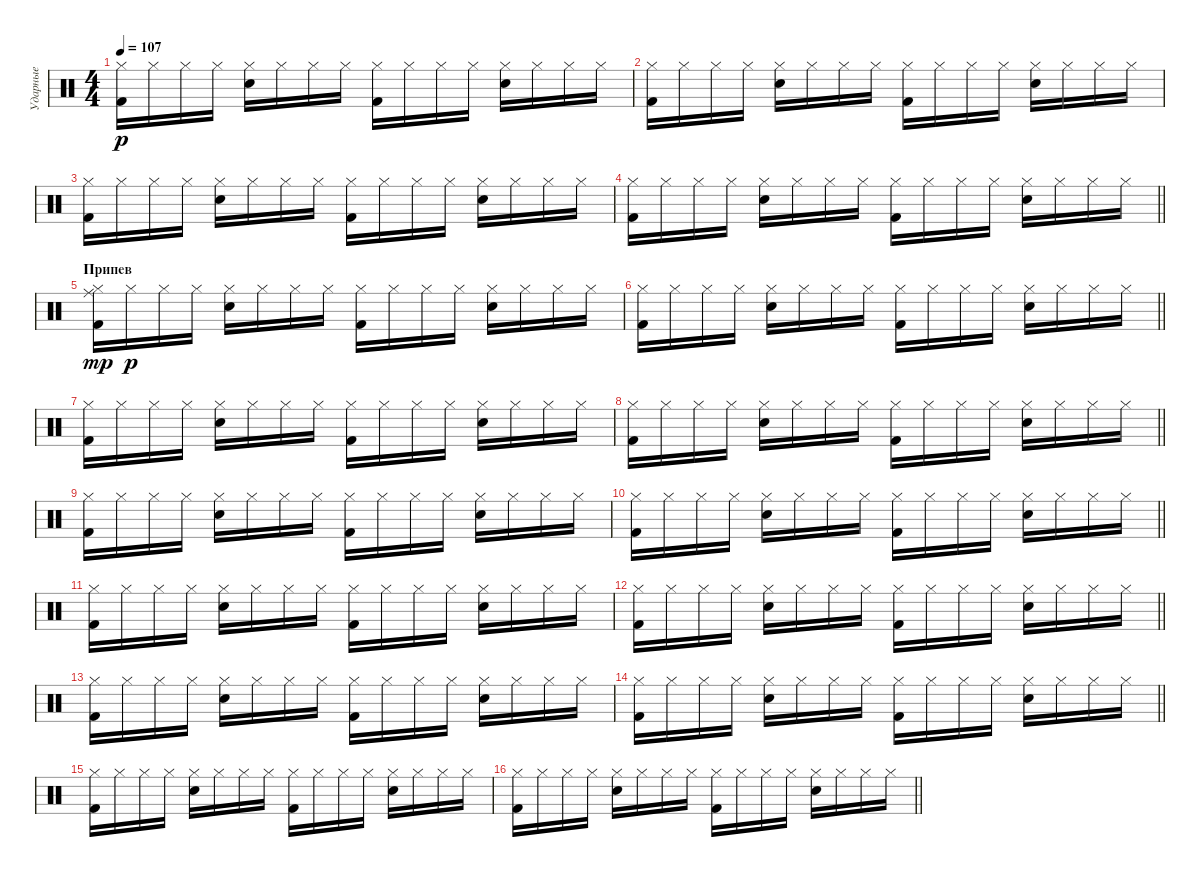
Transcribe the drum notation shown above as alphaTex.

\track ("Ударные" "Ударные") {solo instrument percussion}
\staff {score}
\articulation defaults
\ts (4 4)
\tempo 107
\clef neutral
\ks c
("Kick (hit) 2" "Hi-Hat (closed)").16{dy p} "Hi-Hat (closed)".16 "Hi-Hat (closed)".16 "Hi-Hat (closed)".16 ("Snare (hit) 2" "Hi-Hat (closed)").16 "Hi-Hat (closed)".16 "Hi-Hat (closed)".16 "Hi-Hat (closed)".16 ("Kick (hit) 2" "Hi-Hat (closed)").16 "Hi-Hat (closed)".16 "Hi-Hat (closed)".16 "Hi-Hat (closed)".16 ("Snare (hit) 2" "Hi-Hat (closed)").16 "Hi-Hat (closed)".16 "Hi-Hat (closed)".16 "Hi-Hat (closed)".16 |
("Kick (hit) 2" "Hi-Hat (closed)").16 "Hi-Hat (closed)".16 "Hi-Hat (closed)".16 "Hi-Hat (closed)".16 ("Snare (hit) 2" "Hi-Hat (closed)").16 "Hi-Hat (closed)".16 "Hi-Hat (closed)".16 "Hi-Hat (closed)".16 ("Kick (hit) 2" "Hi-Hat (closed)").16 "Hi-Hat (closed)".16 "Hi-Hat (closed)".16 "Hi-Hat (closed)".16 ("Snare (hit) 2" "Hi-Hat (closed)").16 "Hi-Hat (closed)".16 "Hi-Hat (closed)".16 "Hi-Hat (closed)".16 |
("Kick (hit) 2" "Hi-Hat (closed)").16 "Hi-Hat (closed)".16 "Hi-Hat (closed)".16 "Hi-Hat (closed)".16 ("Snare (hit) 2" "Hi-Hat (closed)").16 "Hi-Hat (closed)".16 "Hi-Hat (closed)".16 "Hi-Hat (closed)".16 ("Kick (hit) 2" "Hi-Hat (closed)").16 "Hi-Hat (closed)".16 "Hi-Hat (closed)".16 "Hi-Hat (closed)".16 ("Snare (hit) 2" "Hi-Hat (closed)").16 "Hi-Hat (closed)".16 "Hi-Hat (closed)".16 "Hi-Hat (closed)".16 |
\barLineRight lightlight
("Kick (hit) 2" "Hi-Hat (closed)").16 "Hi-Hat (closed)".16 "Hi-Hat (closed)".16 "Hi-Hat (closed)".16 ("Snare (hit) 2" "Hi-Hat (closed)").16 "Hi-Hat (closed)".16 "Hi-Hat (closed)".16 "Hi-Hat (closed)".16 ("Kick (hit) 2" "Hi-Hat (closed)").16 "Hi-Hat (closed)".16 "Hi-Hat (closed)".16 "Hi-Hat (closed)".16 ("Snare (hit) 2" "Hi-Hat (closed)").16 "Hi-Hat (closed)".16 "Hi-Hat (closed)".16 "Hi-Hat (closed)".16 |
\section ("" "Припев")
("Kick (hit) 2" "Hi-Hat (closed)" "Ride (middle)").16{dy mp} "Hi-Hat (closed)".16{dy p} "Hi-Hat (closed)".16 "Hi-Hat (closed)".16 ("Snare (hit) 2" "Hi-Hat (closed)").16 "Hi-Hat (closed)".16 "Hi-Hat (closed)".16 "Hi-Hat (closed)".16 ("Kick (hit) 2" "Hi-Hat (closed)").16 "Hi-Hat (closed)".16 "Hi-Hat (closed)".16 "Hi-Hat (closed)".16 ("Snare (hit) 2" "Hi-Hat (closed)").16 "Hi-Hat (closed)".16 "Hi-Hat (closed)".16 "Hi-Hat (closed)".16 |
\barLineRight lightlight
("Kick (hit) 2" "Hi-Hat (closed)").16 "Hi-Hat (closed)".16 "Hi-Hat (closed)".16 "Hi-Hat (closed)".16 ("Snare (hit) 2" "Hi-Hat (closed)").16 "Hi-Hat (closed)".16 "Hi-Hat (closed)".16 "Hi-Hat (closed)".16 ("Kick (hit) 2" "Hi-Hat (closed)").16 "Hi-Hat (closed)".16 "Hi-Hat (closed)".16 "Hi-Hat (closed)".16 ("Snare (hit) 2" "Hi-Hat (closed)").16 "Hi-Hat (closed)".16 "Hi-Hat (closed)".16 "Hi-Hat (closed)".16 |
("Kick (hit) 2" "Hi-Hat (closed)").16 "Hi-Hat (closed)".16 "Hi-Hat (closed)".16 "Hi-Hat (closed)".16 ("Snare (hit) 2" "Hi-Hat (closed)").16 "Hi-Hat (closed)".16 "Hi-Hat (closed)".16 "Hi-Hat (closed)".16 ("Kick (hit) 2" "Hi-Hat (closed)").16 "Hi-Hat (closed)".16 "Hi-Hat (closed)".16 "Hi-Hat (closed)".16 ("Snare (hit) 2" "Hi-Hat (closed)").16 "Hi-Hat (closed)".16 "Hi-Hat (closed)".16 "Hi-Hat (closed)".16 |
\barLineRight lightlight
("Kick (hit) 2" "Hi-Hat (closed)").16 "Hi-Hat (closed)".16 "Hi-Hat (closed)".16 "Hi-Hat (closed)".16 ("Snare (hit) 2" "Hi-Hat (closed)").16 "Hi-Hat (closed)".16 "Hi-Hat (closed)".16 "Hi-Hat (closed)".16 ("Kick (hit) 2" "Hi-Hat (closed)").16 "Hi-Hat (closed)".16 "Hi-Hat (closed)".16 "Hi-Hat (closed)".16 ("Snare (hit) 2" "Hi-Hat (closed)").16 "Hi-Hat (closed)".16 "Hi-Hat (closed)".16 "Hi-Hat (closed)".16 |
("Kick (hit) 2" "Hi-Hat (closed)").16 "Hi-Hat (closed)".16 "Hi-Hat (closed)".16 "Hi-Hat (closed)".16 ("Snare (hit) 2" "Hi-Hat (closed)").16 "Hi-Hat (closed)".16 "Hi-Hat (closed)".16 "Hi-Hat (closed)".16 ("Kick (hit) 2" "Hi-Hat (closed)").16 "Hi-Hat (closed)".16 "Hi-Hat (closed)".16 "Hi-Hat (closed)".16 ("Snare (hit) 2" "Hi-Hat (closed)").16 "Hi-Hat (closed)".16 "Hi-Hat (closed)".16 "Hi-Hat (closed)".16 |
\barLineRight lightlight
("Kick (hit) 2" "Hi-Hat (closed)").16 "Hi-Hat (closed)".16 "Hi-Hat (closed)".16 "Hi-Hat (closed)".16 ("Snare (hit) 2" "Hi-Hat (closed)").16 "Hi-Hat (closed)".16 "Hi-Hat (closed)".16 "Hi-Hat (closed)".16 ("Kick (hit) 2" "Hi-Hat (closed)").16 "Hi-Hat (closed)".16 "Hi-Hat (closed)".16 "Hi-Hat (closed)".16 ("Snare (hit) 2" "Hi-Hat (closed)").16 "Hi-Hat (closed)".16 "Hi-Hat (closed)".16 "Hi-Hat (closed)".16 |
("Kick (hit) 2" "Hi-Hat (closed)").16 "Hi-Hat (closed)".16 "Hi-Hat (closed)".16 "Hi-Hat (closed)".16 ("Snare (hit) 2" "Hi-Hat (closed)").16 "Hi-Hat (closed)".16 "Hi-Hat (closed)".16 "Hi-Hat (closed)".16 ("Kick (hit) 2" "Hi-Hat (closed)").16 "Hi-Hat (closed)".16 "Hi-Hat (closed)".16 "Hi-Hat (closed)".16 ("Snare (hit) 2" "Hi-Hat (closed)").16 "Hi-Hat (closed)".16 "Hi-Hat (closed)".16 "Hi-Hat (closed)".16 |
\barLineRight lightlight
("Kick (hit) 2" "Hi-Hat (closed)").16 "Hi-Hat (closed)".16 "Hi-Hat (closed)".16 "Hi-Hat (closed)".16 ("Snare (hit) 2" "Hi-Hat (closed)").16 "Hi-Hat (closed)".16 "Hi-Hat (closed)".16 "Hi-Hat (closed)".16 ("Kick (hit) 2" "Hi-Hat (closed)").16 "Hi-Hat (closed)".16 "Hi-Hat (closed)".16 "Hi-Hat (closed)".16 ("Snare (hit) 2" "Hi-Hat (closed)").16 "Hi-Hat (closed)".16 "Hi-Hat (closed)".16 "Hi-Hat (closed)".16 |
("Kick (hit) 2" "Hi-Hat (closed)").16 "Hi-Hat (closed)".16 "Hi-Hat (closed)".16 "Hi-Hat (closed)".16 ("Snare (hit) 2" "Hi-Hat (closed)").16 "Hi-Hat (closed)".16 "Hi-Hat (closed)".16 "Hi-Hat (closed)".16 ("Kick (hit) 2" "Hi-Hat (closed)").16 "Hi-Hat (closed)".16 "Hi-Hat (closed)".16 "Hi-Hat (closed)".16 ("Snare (hit) 2" "Hi-Hat (closed)").16 "Hi-Hat (closed)".16 "Hi-Hat (closed)".16 "Hi-Hat (closed)".16 |
\barLineRight lightlight
("Kick (hit) 2" "Hi-Hat (closed)").16 "Hi-Hat (closed)".16 "Hi-Hat (closed)".16 "Hi-Hat (closed)".16 ("Snare (hit) 2" "Hi-Hat (closed)").16 "Hi-Hat (closed)".16 "Hi-Hat (closed)".16 "Hi-Hat (closed)".16 ("Kick (hit) 2" "Hi-Hat (closed)").16 "Hi-Hat (closed)".16 "Hi-Hat (closed)".16 "Hi-Hat (closed)".16 ("Snare (hit) 2" "Hi-Hat (closed)").16 "Hi-Hat (closed)".16 "Hi-Hat (closed)".16 "Hi-Hat (closed)".16 |
("Kick (hit) 2" "Hi-Hat (closed)").16 "Hi-Hat (closed)".16 "Hi-Hat (closed)".16 "Hi-Hat (closed)".16 ("Snare (hit) 2" "Hi-Hat (closed)").16 "Hi-Hat (closed)".16 "Hi-Hat (closed)".16 "Hi-Hat (closed)".16 ("Kick (hit) 2" "Hi-Hat (closed)").16 "Hi-Hat (closed)".16 "Hi-Hat (closed)".16 "Hi-Hat (closed)".16 ("Snare (hit) 2" "Hi-Hat (closed)").16 "Hi-Hat (closed)".16 "Hi-Hat (closed)".16 "Hi-Hat (closed)".16 |
\barLineRight lightlight
("Kick (hit) 2" "Hi-Hat (closed)").16 "Hi-Hat (closed)".16 "Hi-Hat (closed)".16 "Hi-Hat (closed)".16 ("Snare (hit) 2" "Hi-Hat (closed)").16 "Hi-Hat (closed)".16 "Hi-Hat (closed)".16 "Hi-Hat (closed)".16 ("Kick (hit) 2" "Hi-Hat (closed)").16 "Hi-Hat (closed)".16 "Hi-Hat (closed)".16 "Hi-Hat (closed)".16 ("Snare (hit) 2" "Hi-Hat (closed)").16 "Hi-Hat (closed)".16 "Hi-Hat (closed)".16 "Hi-Hat (closed)".16
